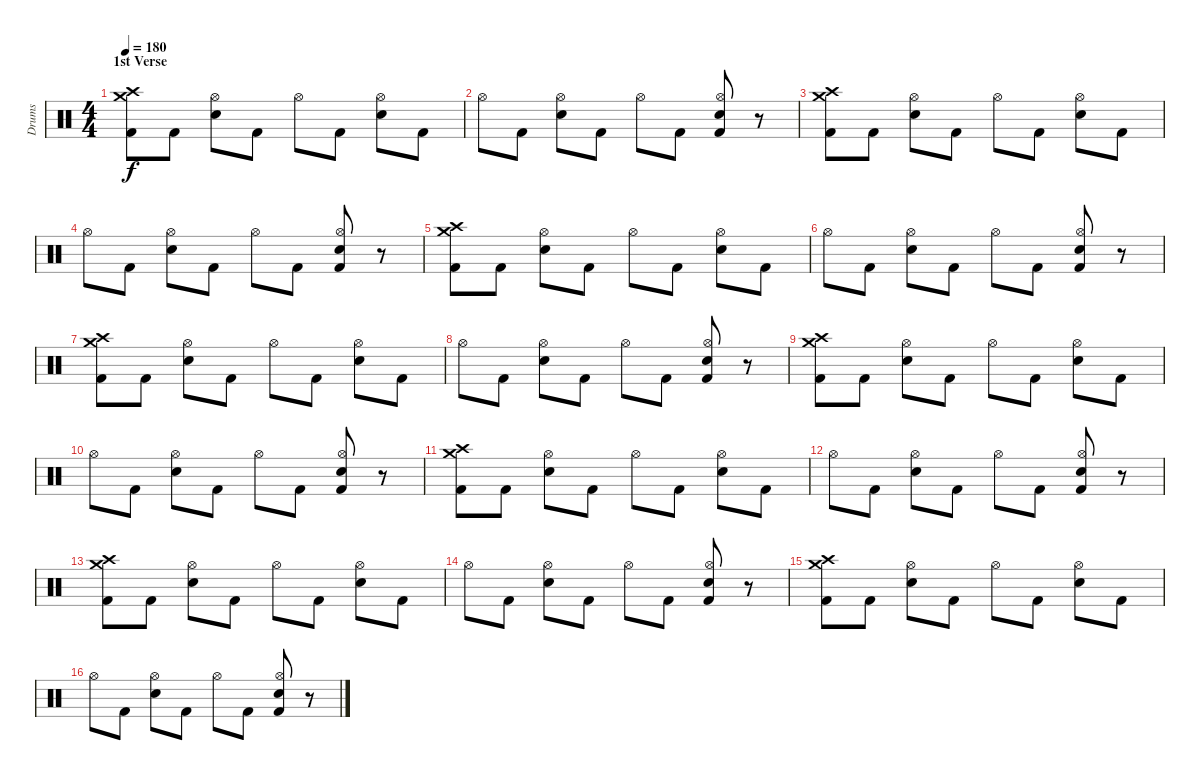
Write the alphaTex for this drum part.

\track ("Drums" "Drums") {instrument percussion}
\staff {score}
\articulation defaults
\ts (4 4)
\section ("" "1st Verse")
\tempo 180
\clef neutral
\ks c
("Crash medium (hit)" "Crash high (hit)" "Kick (hit) 2").8{dy f} "Kick (hit) 2".8 ("Hi-Hat (open)" "Snare (hit) 2").8 "Kick (hit) 2".8 "Hi-Hat (open)".8 "Kick (hit) 2".8 ("Hi-Hat (open)" "Snare (hit) 2").8 "Kick (hit) 2".8 |
"Hi-Hat (open)".8 "Kick (hit) 2".8 ("Hi-Hat (open)" "Snare (hit) 2").8 "Kick (hit) 2".8 "Hi-Hat (open)".8 "Kick (hit) 2".8 ("Hi-Hat (open)" "Snare (hit) 2" "Kick (hit) 2").8 r.8 |
("Crash medium (hit)" "Crash high (hit)" "Kick (hit) 2").8 "Kick (hit) 2".8 ("Hi-Hat (open)" "Snare (hit) 2").8 "Kick (hit) 2".8 "Hi-Hat (open)".8 "Kick (hit) 2".8 ("Hi-Hat (open)" "Snare (hit) 2").8 "Kick (hit) 2".8 |
"Hi-Hat (open)".8 "Kick (hit) 2".8 ("Hi-Hat (open)" "Snare (hit) 2").8 "Kick (hit) 2".8 "Hi-Hat (open)".8 "Kick (hit) 2".8 ("Hi-Hat (open)" "Snare (hit) 2" "Kick (hit) 2").8 r.8 |
("Crash medium (hit)" "Crash high (hit)" "Kick (hit) 2").8 "Kick (hit) 2".8 ("Hi-Hat (open)" "Snare (hit) 2").8 "Kick (hit) 2".8 "Hi-Hat (open)".8 "Kick (hit) 2".8 ("Hi-Hat (open)" "Snare (hit) 2").8 "Kick (hit) 2".8 |
"Hi-Hat (open)".8 "Kick (hit) 2".8 ("Hi-Hat (open)" "Snare (hit) 2").8 "Kick (hit) 2".8 "Hi-Hat (open)".8 "Kick (hit) 2".8 ("Hi-Hat (open)" "Snare (hit) 2" "Kick (hit) 2").8 r.8 |
("Crash medium (hit)" "Crash high (hit)" "Kick (hit) 2").8 "Kick (hit) 2".8 ("Hi-Hat (open)" "Snare (hit) 2").8 "Kick (hit) 2".8 "Hi-Hat (open)".8 "Kick (hit) 2".8 ("Hi-Hat (open)" "Snare (hit) 2").8 "Kick (hit) 2".8 |
"Hi-Hat (open)".8 "Kick (hit) 2".8 ("Hi-Hat (open)" "Snare (hit) 2").8 "Kick (hit) 2".8 "Hi-Hat (open)".8 "Kick (hit) 2".8 ("Hi-Hat (open)" "Snare (hit) 2" "Kick (hit) 2").8 r.8 |
("Crash medium (hit)" "Crash high (hit)" "Kick (hit) 2").8 "Kick (hit) 2".8 ("Hi-Hat (open)" "Snare (hit) 2").8 "Kick (hit) 2".8 "Hi-Hat (open)".8 "Kick (hit) 2".8 ("Hi-Hat (open)" "Snare (hit) 2").8 "Kick (hit) 2".8 |
"Hi-Hat (open)".8 "Kick (hit) 2".8 ("Hi-Hat (open)" "Snare (hit) 2").8 "Kick (hit) 2".8 "Hi-Hat (open)".8 "Kick (hit) 2".8 ("Hi-Hat (open)" "Snare (hit) 2" "Kick (hit) 2").8 r.8 |
("Crash medium (hit)" "Crash high (hit)" "Kick (hit) 2").8 "Kick (hit) 2".8 ("Hi-Hat (open)" "Snare (hit) 2").8 "Kick (hit) 2".8 "Hi-Hat (open)".8 "Kick (hit) 2".8 ("Hi-Hat (open)" "Snare (hit) 2").8 "Kick (hit) 2".8 |
"Hi-Hat (open)".8 "Kick (hit) 2".8 ("Hi-Hat (open)" "Snare (hit) 2").8 "Kick (hit) 2".8 "Hi-Hat (open)".8 "Kick (hit) 2".8 ("Hi-Hat (open)" "Snare (hit) 2" "Kick (hit) 2").8 r.8 |
("Crash medium (hit)" "Crash high (hit)" "Kick (hit) 2").8 "Kick (hit) 2".8 ("Hi-Hat (open)" "Snare (hit) 2").8 "Kick (hit) 2".8 "Hi-Hat (open)".8 "Kick (hit) 2".8 ("Hi-Hat (open)" "Snare (hit) 2").8 "Kick (hit) 2".8 |
"Hi-Hat (open)".8 "Kick (hit) 2".8 ("Hi-Hat (open)" "Snare (hit) 2").8 "Kick (hit) 2".8 "Hi-Hat (open)".8 "Kick (hit) 2".8 ("Hi-Hat (open)" "Snare (hit) 2" "Kick (hit) 2").8 r.8 |
("Crash medium (hit)" "Crash high (hit)" "Kick (hit) 2").8 "Kick (hit) 2".8 ("Hi-Hat (open)" "Snare (hit) 2").8 "Kick (hit) 2".8 "Hi-Hat (open)".8 "Kick (hit) 2".8 ("Hi-Hat (open)" "Snare (hit) 2").8 "Kick (hit) 2".8 |
"Hi-Hat (open)".8 "Kick (hit) 2".8 ("Hi-Hat (open)" "Snare (hit) 2").8 "Kick (hit) 2".8 "Hi-Hat (open)".8 "Kick (hit) 2".8 ("Hi-Hat (open)" "Snare (hit) 2" "Kick (hit) 2").8 r.8
